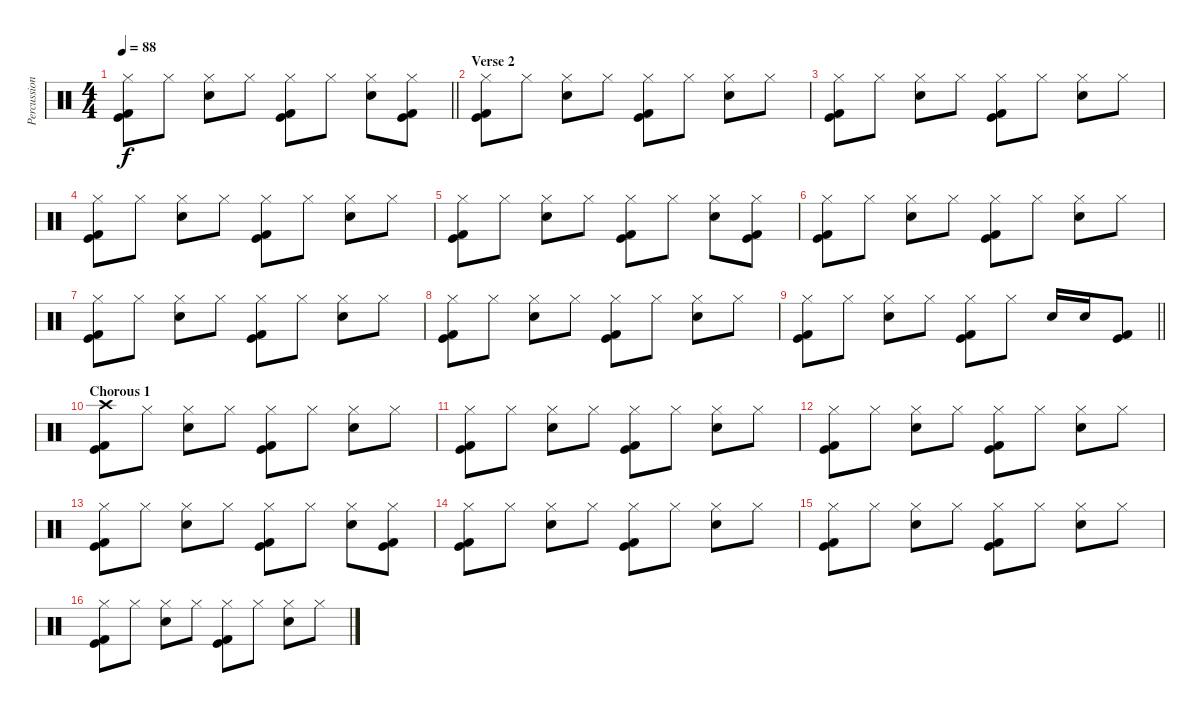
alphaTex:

\track ("Percussion" "Percussion") {instrument percussion}
\staff {score}
\articulation defaults
\ts (4 4)
\tempo 88
\clef neutral
\barLineRight lightlight
\ks c
("Hi-Hat (closed)" "Kick (hit)" "Kick (hit) 2").8{dy f} "Hi-Hat (closed)".8 ("Hi-Hat (closed)" "Electric Snare (hit)").8 "Hi-Hat (closed)".8 ("Hi-Hat (closed)" "Kick (hit)" "Kick (hit) 2").8 "Hi-Hat (closed)".8 ("Hi-Hat (closed)" "Electric Snare (hit)").8 ("Hi-Hat (closed)" "Kick (hit)" "Kick (hit) 2").8 |
\section ("" "Verse 2")
("Hi-Hat (closed)" "Kick (hit)" "Kick (hit) 2").8 "Hi-Hat (closed)".8 ("Hi-Hat (closed)" "Electric Snare (hit)").8 "Hi-Hat (closed)".8 ("Hi-Hat (closed)" "Kick (hit)" "Kick (hit) 2").8 "Hi-Hat (closed)".8 ("Hi-Hat (closed)" "Electric Snare (hit)").8 "Hi-Hat (closed)".8 |
("Hi-Hat (closed)" "Kick (hit)" "Kick (hit) 2").8 "Hi-Hat (closed)".8 ("Hi-Hat (closed)" "Electric Snare (hit)").8 "Hi-Hat (closed)".8 ("Hi-Hat (closed)" "Kick (hit)" "Kick (hit) 2").8 "Hi-Hat (closed)".8 ("Hi-Hat (closed)" "Electric Snare (hit)").8 "Hi-Hat (closed)".8 |
("Hi-Hat (closed)" "Kick (hit)" "Kick (hit) 2").8 "Hi-Hat (closed)".8 ("Hi-Hat (closed)" "Electric Snare (hit)").8 "Hi-Hat (closed)".8 ("Hi-Hat (closed)" "Kick (hit)" "Kick (hit) 2").8 "Hi-Hat (closed)".8 ("Hi-Hat (closed)" "Electric Snare (hit)").8 "Hi-Hat (closed)".8 |
("Hi-Hat (closed)" "Kick (hit)" "Kick (hit) 2").8 "Hi-Hat (closed)".8 ("Hi-Hat (closed)" "Electric Snare (hit)").8 "Hi-Hat (closed)".8 ("Hi-Hat (closed)" "Kick (hit)" "Kick (hit) 2").8 "Hi-Hat (closed)".8 ("Hi-Hat (closed)" "Electric Snare (hit)").8 ("Hi-Hat (closed)" "Kick (hit)" "Kick (hit) 2").8 |
("Hi-Hat (closed)" "Kick (hit)" "Kick (hit) 2").8 "Hi-Hat (closed)".8 ("Hi-Hat (closed)" "Electric Snare (hit)").8 "Hi-Hat (closed)".8 ("Hi-Hat (closed)" "Kick (hit)" "Kick (hit) 2").8 "Hi-Hat (closed)".8 ("Hi-Hat (closed)" "Electric Snare (hit)").8 "Hi-Hat (closed)".8 |
("Hi-Hat (closed)" "Kick (hit)" "Kick (hit) 2").8 "Hi-Hat (closed)".8 ("Hi-Hat (closed)" "Electric Snare (hit)").8 "Hi-Hat (closed)".8 ("Hi-Hat (closed)" "Kick (hit)" "Kick (hit) 2").8 "Hi-Hat (closed)".8 ("Hi-Hat (closed)" "Electric Snare (hit)").8 "Hi-Hat (closed)".8 |
("Hi-Hat (closed)" "Kick (hit)" "Kick (hit) 2").8 "Hi-Hat (closed)".8 ("Hi-Hat (closed)" "Electric Snare (hit)").8 "Hi-Hat (closed)".8 ("Hi-Hat (closed)" "Kick (hit)" "Kick (hit) 2").8 "Hi-Hat (closed)".8 ("Hi-Hat (closed)" "Electric Snare (hit)").8 "Hi-Hat (closed)".8 |
\barLineRight lightlight
("Hi-Hat (closed)" "Kick (hit)" "Kick (hit) 2").8 "Hi-Hat (closed)".8 ("Hi-Hat (closed)" "Electric Snare (hit)").8 "Hi-Hat (closed)".8 ("Hi-Hat (closed)" "Kick (hit)" "Kick (hit) 2").8 "Hi-Hat (closed)".8 "Electric Snare (hit)".16 "Electric Snare (hit)".16 ("Kick (hit)" "Kick (hit) 2").8 |
\section ("" "Chorous 1")
("Crash high (hit)" "Kick (hit)" "Kick (hit) 2").8 "Hi-Hat (closed)".8 ("Hi-Hat (closed)" "Electric Snare (hit)").8 "Hi-Hat (closed)".8 ("Hi-Hat (closed)" "Kick (hit)" "Kick (hit) 2").8 "Hi-Hat (closed)".8 ("Hi-Hat (closed)" "Electric Snare (hit)").8 "Hi-Hat (closed)".8 |
("Hi-Hat (closed)" "Kick (hit)" "Kick (hit) 2").8 "Hi-Hat (closed)".8 ("Hi-Hat (closed)" "Electric Snare (hit)").8 "Hi-Hat (closed)".8 ("Hi-Hat (closed)" "Kick (hit)" "Kick (hit) 2").8 "Hi-Hat (closed)".8 ("Hi-Hat (closed)" "Electric Snare (hit)").8 "Hi-Hat (closed)".8 |
("Hi-Hat (closed)" "Kick (hit)" "Kick (hit) 2").8 "Hi-Hat (closed)".8 ("Hi-Hat (closed)" "Electric Snare (hit)").8 "Hi-Hat (closed)".8 ("Hi-Hat (closed)" "Kick (hit)" "Kick (hit) 2").8 "Hi-Hat (closed)".8 ("Hi-Hat (closed)" "Electric Snare (hit)").8 "Hi-Hat (closed)".8 |
("Hi-Hat (closed)" "Kick (hit)" "Kick (hit) 2").8 "Hi-Hat (closed)".8 ("Hi-Hat (closed)" "Electric Snare (hit)").8 "Hi-Hat (closed)".8 ("Hi-Hat (closed)" "Kick (hit)" "Kick (hit) 2").8 "Hi-Hat (closed)".8 ("Hi-Hat (closed)" "Electric Snare (hit)").8 ("Hi-Hat (closed)" "Kick (hit)" "Kick (hit) 2").8 |
("Hi-Hat (closed)" "Kick (hit)" "Kick (hit) 2").8 "Hi-Hat (closed)".8 ("Hi-Hat (closed)" "Electric Snare (hit)").8 "Hi-Hat (closed)".8 ("Hi-Hat (closed)" "Kick (hit)" "Kick (hit) 2").8 "Hi-Hat (closed)".8 ("Hi-Hat (closed)" "Electric Snare (hit)").8 "Hi-Hat (closed)".8 |
("Hi-Hat (closed)" "Kick (hit)" "Kick (hit) 2").8 "Hi-Hat (closed)".8 ("Hi-Hat (closed)" "Electric Snare (hit)").8 "Hi-Hat (closed)".8 ("Hi-Hat (closed)" "Kick (hit)" "Kick (hit) 2").8 "Hi-Hat (closed)".8 ("Hi-Hat (closed)" "Electric Snare (hit)").8 "Hi-Hat (closed)".8 |
("Hi-Hat (closed)" "Kick (hit)" "Kick (hit) 2").8 "Hi-Hat (closed)".8 ("Hi-Hat (closed)" "Electric Snare (hit)").8 "Hi-Hat (closed)".8 ("Hi-Hat (closed)" "Kick (hit)" "Kick (hit) 2").8 "Hi-Hat (closed)".8 ("Hi-Hat (closed)" "Electric Snare (hit)").8 "Hi-Hat (closed)".8
